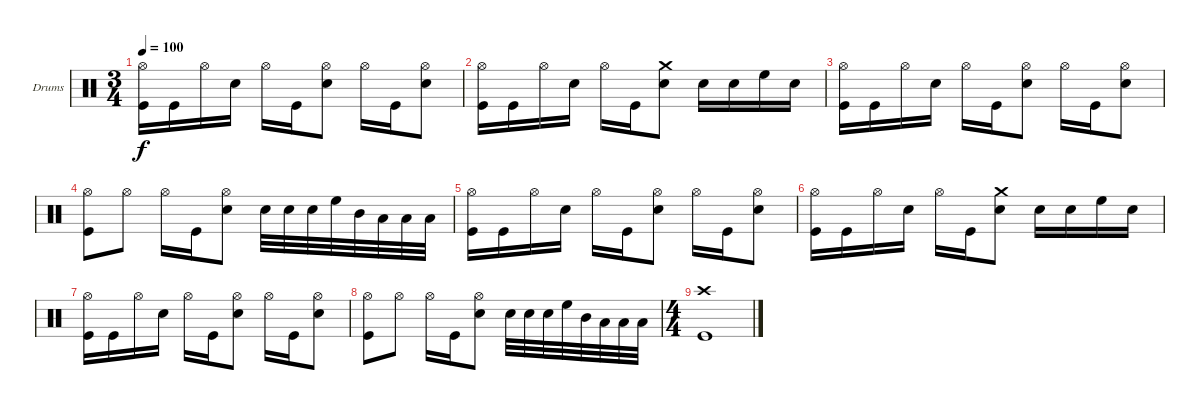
\bracketExtendMode groupsimilarinstruments
\firstSystemTrackNameOrientation horizontal
\otherSystemsTrackNameOrientation horizontal
\track ("Emile Bardou" "Drums") {instrument percussion}
\staff {score}
\articulation defaults
\ts (3 4)
\tempo 100
\clef neutral
\scale
0.333333
\ks c
("Hi-Hat (open)" "Kick (hit)").16{dy f} "Kick (hit)".16 "Hi-Hat (open)".16 "Snare (hit) 2".16 "Hi-Hat (open)".16 "Kick (hit)".16 ("Hi-Hat (open)" "Snare (hit) 2").8 "Hi-Hat (open)".16 "Kick (hit)".16 ("Hi-Hat (open)" "Snare (hit) 2").8 |
\scale
0.333333 ("Hi-Hat (open)" "Kick (hit)").16 "Kick (hit)".16 "Hi-Hat (open)".16 "Snare (hit) 2".16 "Hi-Hat (open)".16 "Kick (hit)".16 ("Crash medium (hit)" "Snare (hit) 2").8 "Snare (hit) 2".16 "Snare (hit) 2".16 "High Floor Tom (hit)".16 "Snare (hit) 2".16 |
\scale
0.333333 ("Hi-Hat (open)" "Kick (hit)").16 "Kick (hit)".16 "Hi-Hat (open)".16 "Snare (hit) 2".16 "Hi-Hat (open)".16 "Kick (hit)".16 ("Hi-Hat (open)" "Snare (hit) 2").8 "Hi-Hat (open)".16 "Kick (hit)".16 ("Hi-Hat (open)" "Snare (hit) 2").8 |
\scale
0.333333 ("Hi-Hat (open)" "Kick (hit)").8 "Hi-Hat (open)".8 "Hi-Hat (open)".16 "Kick (hit)".16 ("Hi-Hat (open)" "Snare (hit) 2").8 "Snare (hit) 2".32 "Snare (hit) 2".32 "Snare (hit) 2".32 "High Floor Tom (hit)".32 "Mid Tom (hit)".32 "Low Tom (hit)".32 "Low Tom (hit)".32 "Low Tom (hit)".32 |
\scale
0.333333 ("Hi-Hat (open)" "Kick (hit)").16 "Kick (hit)".16 "Hi-Hat (open)".16 "Snare (hit) 2".16 "Hi-Hat (open)".16 "Kick (hit)".16 ("Hi-Hat (open)" "Snare (hit) 2").8 "Hi-Hat (open)".16 "Kick (hit)".16 ("Hi-Hat (open)" "Snare (hit) 2").8 |
\scale
0.333333 ("Hi-Hat (open)" "Kick (hit)").16 "Kick (hit)".16 "Hi-Hat (open)".16 "Snare (hit) 2".16 "Hi-Hat (open)".16 "Kick (hit)".16 ("Crash medium (hit)" "Snare (hit) 2").8 "Snare (hit) 2".16 "Snare (hit) 2".16 "High Floor Tom (hit)".16 "Snare (hit) 2".16 |
\scale
0.262911 ("Hi-Hat (open)" "Kick (hit)").16 "Kick (hit)".16 "Hi-Hat (open)".16 "Snare (hit) 2".16 "Hi-Hat (open)".16 "Kick (hit)".16 ("Hi-Hat (open)" "Snare (hit) 2").8 "Hi-Hat (open)".16 "Kick (hit)".16 ("Hi-Hat (open)" "Snare (hit) 2").8 |
\scale
0.262911 ("Hi-Hat (open)" "Kick (hit)").8 "Hi-Hat (open)".8 "Hi-Hat (open)".16 "Kick (hit)".16 ("Hi-Hat (open)" "Snare (hit) 2").8 "Snare (hit) 2".32 "Snare (hit) 2".32 "Snare (hit) 2".32 "High Floor Tom (hit)".32 "Mid Tom (hit)".32 "Low Tom (hit)".32 "Low Tom (hit)".32 "Low Tom (hit)".32 |
\ts (4 4)
\scale
0.474178 ("Kick (hit)" "Crash high (hit)").1
